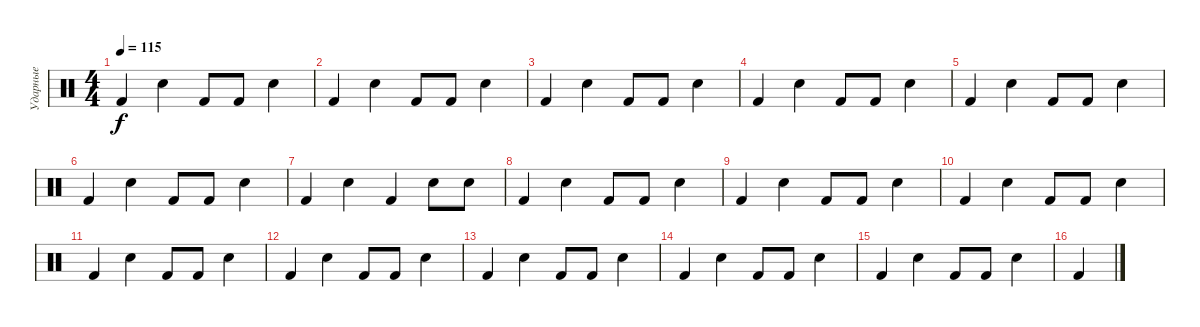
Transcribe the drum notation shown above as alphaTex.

\track ("Ударные" "Ударные") {instrument percussion}
\staff {score}
\articulation defaults
\ts (4 4)
\tempo 115
\clef neutral
\ks c "Kick (hit) 2".4{dy f} "Electric Snare (hit)".4 "Kick (hit) 2".8 "Kick (hit) 2".8 "Electric Snare (hit)".4
|
"Kick (hit) 2".4 "Electric Snare (hit)".4 "Kick (hit) 2".8 "Kick (hit) 2".8 "Electric Snare (hit)".4 |
"Kick (hit) 2".4 "Electric Snare (hit)".4 "Kick (hit) 2".8 "Kick (hit) 2".8 "Electric Snare (hit)".4 |
"Kick (hit) 2".4 "Electric Snare (hit)".4 "Kick (hit) 2".8 "Kick (hit) 2".8 "Electric Snare (hit)".4 |
"Kick (hit) 2".4 "Electric Snare (hit)".4 "Kick (hit) 2".8 "Kick (hit) 2".8 "Electric Snare (hit)".4 |
"Kick (hit) 2".4 "Electric Snare (hit)".4 "Kick (hit) 2".8 "Kick (hit) 2".8 "Electric Snare (hit)".4 |
"Kick (hit) 2".4 "Electric Snare (hit)".4 "Kick (hit) 2".4 "Electric Snare (hit)".8 "Electric Snare (hit)".8 |
"Kick (hit) 2".4 "Electric Snare (hit)".4 "Kick (hit) 2".8 "Kick (hit) 2".8 "Electric Snare (hit)".4 |
"Kick (hit) 2".4 "Electric Snare (hit)".4 "Kick (hit) 2".8 "Kick (hit) 2".8 "Electric Snare (hit)".4 |
"Kick (hit) 2".4 "Electric Snare (hit)".4 "Kick (hit) 2".8 "Kick (hit) 2".8 "Electric Snare (hit)".4 |
"Kick (hit) 2".4 "Electric Snare (hit)".4 "Kick (hit) 2".8 "Kick (hit) 2".8 "Electric Snare (hit)".4 |
"Kick (hit) 2".4 "Electric Snare (hit)".4 "Kick (hit) 2".8 "Kick (hit) 2".8 "Electric Snare (hit)".4 |
"Kick (hit) 2".4 "Electric Snare (hit)".4 "Kick (hit) 2".8 "Kick (hit) 2".8 "Electric Snare (hit)".4 |
"Kick (hit) 2".4 "Electric Snare (hit)".4 "Kick (hit) 2".8 "Kick (hit) 2".8 "Electric Snare (hit)".4 |
"Kick (hit) 2".4 "Electric Snare (hit)".4 "Kick (hit) 2".8 "Kick (hit) 2".8 "Electric Snare (hit)".4 |
"Kick (hit) 2".4
